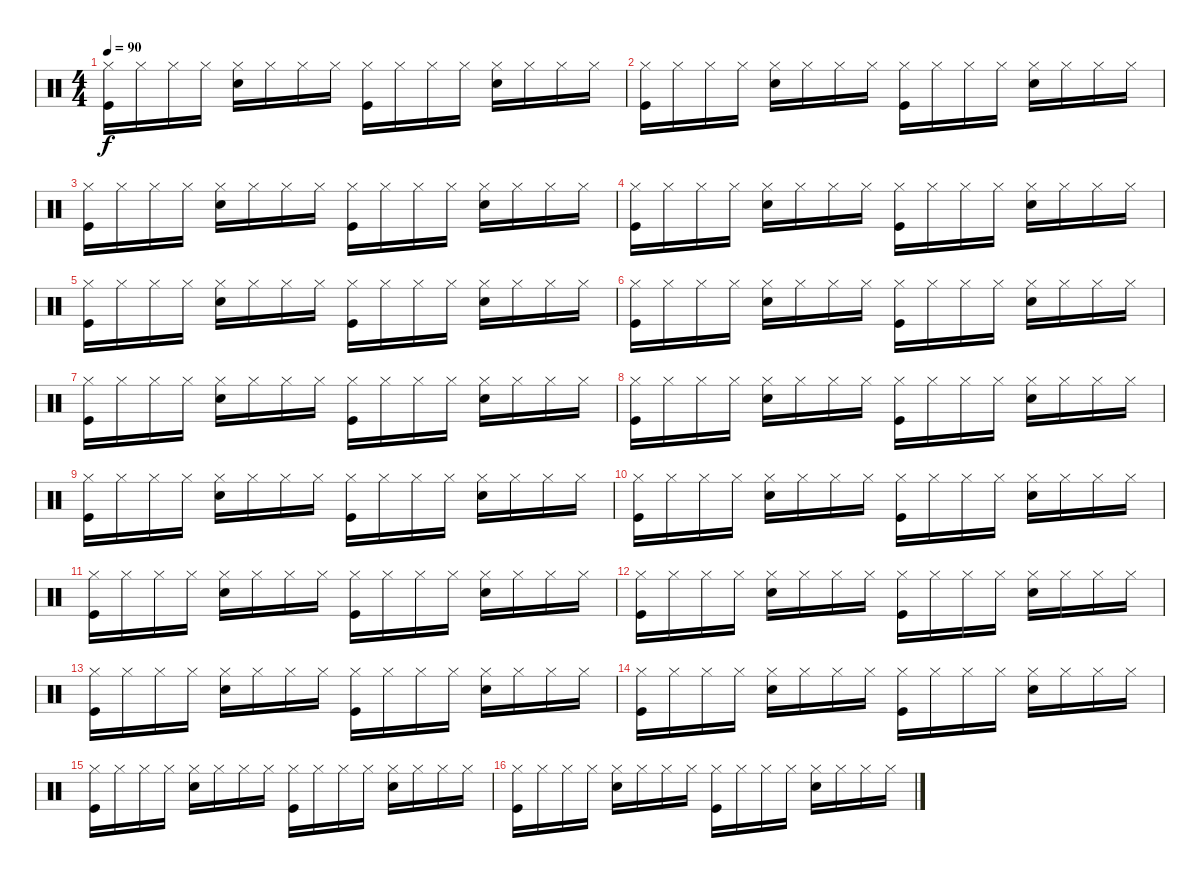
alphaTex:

\track "" {instrument percussion}
\staff {score}
\articulation defaults
\ts (4 4)
\tempo 90
\clef neutral
\ks c
("Kick (hit)" "Hi-Hat (closed)").16{dy f} "Hi-Hat (closed)".16 "Hi-Hat (closed)".16 "Hi-Hat (closed)".16 ("Hi-Hat (closed)" "Snare (hit) 2").16 "Hi-Hat (closed)".16 "Hi-Hat (closed)".16 "Hi-Hat (closed)".16 ("Hi-Hat (closed)" "Kick (hit)").16 "Hi-Hat (closed)".16 "Hi-Hat (closed)".16 "Hi-Hat (closed)".16 ("Snare (hit) 2" "Hi-Hat (closed)").16 "Hi-Hat (closed)".16 "Hi-Hat (closed)".16 "Hi-Hat (closed)".16 |
("Hi-Hat (closed)" "Kick (hit)").16 "Hi-Hat (closed)".16 "Hi-Hat (closed)".16 "Hi-Hat (closed)".16 ("Hi-Hat (closed)" "Snare (hit) 2").16 "Hi-Hat (closed)".16 "Hi-Hat (closed)".16 "Hi-Hat (closed)".16 ("Kick (hit)" "Hi-Hat (closed)").16 "Hi-Hat (closed)".16 "Hi-Hat (closed)".16 "Hi-Hat (closed)".16 ("Hi-Hat (closed)" "Snare (hit) 2").16 "Hi-Hat (closed)".16 "Hi-Hat (closed)".16 "Hi-Hat (closed)".16 |
("Hi-Hat (closed)" "Kick (hit)").16 "Hi-Hat (closed)".16 "Hi-Hat (closed)".16 "Hi-Hat (closed)".16 ("Snare (hit) 2" "Hi-Hat (closed)").16 "Hi-Hat (closed)".16 "Hi-Hat (closed)".16 "Hi-Hat (closed)".16 ("Hi-Hat (closed)" "Kick (hit)").16 "Hi-Hat (closed)".16 "Hi-Hat (closed)".16 "Hi-Hat (closed)".16 ("Hi-Hat (closed)" "Snare (hit) 2").16 "Hi-Hat (closed)".16 "Hi-Hat (closed)".16 "Hi-Hat (closed)".16 |
("Kick (hit)" "Hi-Hat (closed)").16 "Hi-Hat (closed)".16 "Hi-Hat (closed)".16 "Hi-Hat (closed)".16 ("Hi-Hat (closed)" "Snare (hit) 2").16 "Hi-Hat (closed)".16 "Hi-Hat (closed)".16 "Hi-Hat (closed)".16 ("Hi-Hat (closed)" "Kick (hit)").16 "Hi-Hat (closed)".16 "Hi-Hat (closed)".16 "Hi-Hat (closed)".16 ("Snare (hit) 2" "Hi-Hat (closed)").16 "Hi-Hat (closed)".16 "Hi-Hat (closed)".16 "Hi-Hat (closed)".16 |
("Hi-Hat (closed)" "Kick (hit)").16 "Hi-Hat (closed)".16 "Hi-Hat (closed)".16 "Hi-Hat (closed)".16 ("Hi-Hat (closed)" "Snare (hit) 2").16 "Hi-Hat (closed)".16 "Hi-Hat (closed)".16 "Hi-Hat (closed)".16 ("Kick (hit)" "Hi-Hat (closed)").16 "Hi-Hat (closed)".16 "Hi-Hat (closed)".16 "Hi-Hat (closed)".16 ("Hi-Hat (closed)" "Snare (hit) 2").16 "Hi-Hat (closed)".16 "Hi-Hat (closed)".16 "Hi-Hat (closed)".16 |
("Hi-Hat (closed)" "Kick (hit)").16 "Hi-Hat (closed)".16 "Hi-Hat (closed)".16 "Hi-Hat (closed)".16 ("Snare (hit) 2" "Hi-Hat (closed)").16 "Hi-Hat (closed)".16 "Hi-Hat (closed)".16 "Hi-Hat (closed)".16 ("Hi-Hat (closed)" "Kick (hit)").16 "Hi-Hat (closed)".16 "Hi-Hat (closed)".16 "Hi-Hat (closed)".16 ("Hi-Hat (closed)" "Snare (hit) 2").16 "Hi-Hat (closed)".16 "Hi-Hat (closed)".16 "Hi-Hat (closed)".16 |
("Kick (hit)" "Hi-Hat (closed)").16 "Hi-Hat (closed)".16 "Hi-Hat (closed)".16 "Hi-Hat (closed)".16 ("Hi-Hat (closed)" "Snare (hit) 2").16 "Hi-Hat (closed)".16 "Hi-Hat (closed)".16 "Hi-Hat (closed)".16 ("Hi-Hat (closed)" "Kick (hit)").16 "Hi-Hat (closed)".16 "Hi-Hat (closed)".16 "Hi-Hat (closed)".16 ("Snare (hit) 2" "Hi-Hat (closed)").16 "Hi-Hat (closed)".16 "Hi-Hat (closed)".16 "Hi-Hat (closed)".16 |
("Hi-Hat (closed)" "Kick (hit)").16 "Hi-Hat (closed)".16 "Hi-Hat (closed)".16 "Hi-Hat (closed)".16 ("Hi-Hat (closed)" "Snare (hit) 2").16 "Hi-Hat (closed)".16 "Hi-Hat (closed)".16 "Hi-Hat (closed)".16 ("Kick (hit)" "Hi-Hat (closed)").16 "Hi-Hat (closed)".16 "Hi-Hat (closed)".16 "Hi-Hat (closed)".16 ("Hi-Hat (closed)" "Snare (hit) 2").16 "Hi-Hat (closed)".16 "Hi-Hat (closed)".16 "Hi-Hat (closed)".16 |
("Hi-Hat (closed)" "Kick (hit)").16 "Hi-Hat (closed)".16 "Hi-Hat (closed)".16 "Hi-Hat (closed)".16 ("Snare (hit) 2" "Hi-Hat (closed)").16 "Hi-Hat (closed)".16 "Hi-Hat (closed)".16 "Hi-Hat (closed)".16 ("Hi-Hat (closed)" "Kick (hit)").16 "Hi-Hat (closed)".16 "Hi-Hat (closed)".16 "Hi-Hat (closed)".16 ("Hi-Hat (closed)" "Snare (hit) 2").16 "Hi-Hat (closed)".16 "Hi-Hat (closed)".16 "Hi-Hat (closed)".16 |
("Hi-Hat (closed)" "Kick (hit)").16 "Hi-Hat (closed)".16 "Hi-Hat (closed)".16 "Hi-Hat (closed)".16 ("Snare (hit) 2" "Hi-Hat (closed)").16 "Hi-Hat (closed)".16 "Hi-Hat (closed)".16 "Hi-Hat (closed)".16 ("Hi-Hat (closed)" "Kick (hit)").16 "Hi-Hat (closed)".16 "Hi-Hat (closed)".16 "Hi-Hat (closed)".16 ("Hi-Hat (closed)" "Snare (hit) 2").16 "Hi-Hat (closed)".16 "Hi-Hat (closed)".16 "Hi-Hat (closed)".16 |
("Kick (hit)" "Hi-Hat (closed)").16 "Hi-Hat (closed)".16 "Hi-Hat (closed)".16 "Hi-Hat (closed)".16 ("Hi-Hat (closed)" "Snare (hit) 2").16 "Hi-Hat (closed)".16 "Hi-Hat (closed)".16 "Hi-Hat (closed)".16 ("Hi-Hat (closed)" "Kick (hit)").16 "Hi-Hat (closed)".16 "Hi-Hat (closed)".16 "Hi-Hat (closed)".16 ("Snare (hit) 2" "Hi-Hat (closed)").16 "Hi-Hat (closed)".16 "Hi-Hat (closed)".16 "Hi-Hat (closed)".16 |
("Hi-Hat (closed)" "Kick (hit)").16 "Hi-Hat (closed)".16 "Hi-Hat (closed)".16 "Hi-Hat (closed)".16 ("Hi-Hat (closed)" "Snare (hit) 2").16 "Hi-Hat (closed)".16 "Hi-Hat (closed)".16 "Hi-Hat (closed)".16 ("Kick (hit)" "Hi-Hat (closed)").16 "Hi-Hat (closed)".16 "Hi-Hat (closed)".16 "Hi-Hat (closed)".16 ("Hi-Hat (closed)" "Snare (hit) 2").16 "Hi-Hat (closed)".16 "Hi-Hat (closed)".16 "Hi-Hat (closed)".16 |
("Hi-Hat (closed)" "Kick (hit)").16 "Hi-Hat (closed)".16 "Hi-Hat (closed)".16 "Hi-Hat (closed)".16 ("Snare (hit) 2" "Hi-Hat (closed)").16 "Hi-Hat (closed)".16 "Hi-Hat (closed)".16 "Hi-Hat (closed)".16 ("Hi-Hat (closed)" "Kick (hit)").16 "Hi-Hat (closed)".16 "Hi-Hat (closed)".16 "Hi-Hat (closed)".16 ("Hi-Hat (closed)" "Snare (hit) 2").16 "Hi-Hat (closed)".16 "Hi-Hat (closed)".16 "Hi-Hat (closed)".16 |
("Kick (hit)" "Hi-Hat (closed)").16 "Hi-Hat (closed)".16 "Hi-Hat (closed)".16 "Hi-Hat (closed)".16 ("Hi-Hat (closed)" "Snare (hit) 2").16 "Hi-Hat (closed)".16 "Hi-Hat (closed)".16 "Hi-Hat (closed)".16 ("Hi-Hat (closed)" "Kick (hit)").16 "Hi-Hat (closed)".16 "Hi-Hat (closed)".16 "Hi-Hat (closed)".16 ("Snare (hit) 2" "Hi-Hat (closed)").16 "Hi-Hat (closed)".16 "Hi-Hat (closed)".16 "Hi-Hat (closed)".16 |
("Hi-Hat (closed)" "Kick (hit)").16 "Hi-Hat (closed)".16 "Hi-Hat (closed)".16 "Hi-Hat (closed)".16 ("Hi-Hat (closed)" "Snare (hit) 2").16 "Hi-Hat (closed)".16 "Hi-Hat (closed)".16 "Hi-Hat (closed)".16 ("Kick (hit)" "Hi-Hat (closed)").16 "Hi-Hat (closed)".16 "Hi-Hat (closed)".16 "Hi-Hat (closed)".16 ("Hi-Hat (closed)" "Snare (hit) 2").16 "Hi-Hat (closed)".16 "Hi-Hat (closed)".16 "Hi-Hat (closed)".16 |
("Hi-Hat (closed)" "Kick (hit)").16 "Hi-Hat (closed)".16 "Hi-Hat (closed)".16 "Hi-Hat (closed)".16 ("Snare (hit) 2" "Hi-Hat (closed)").16 "Hi-Hat (closed)".16 "Hi-Hat (closed)".16 "Hi-Hat (closed)".16 ("Hi-Hat (closed)" "Kick (hit)").16 "Hi-Hat (closed)".16 "Hi-Hat (closed)".16 "Hi-Hat (closed)".16 ("Hi-Hat (closed)" "Snare (hit) 2").16 "Hi-Hat (closed)".16 "Hi-Hat (closed)".16 "Hi-Hat (closed)".16
